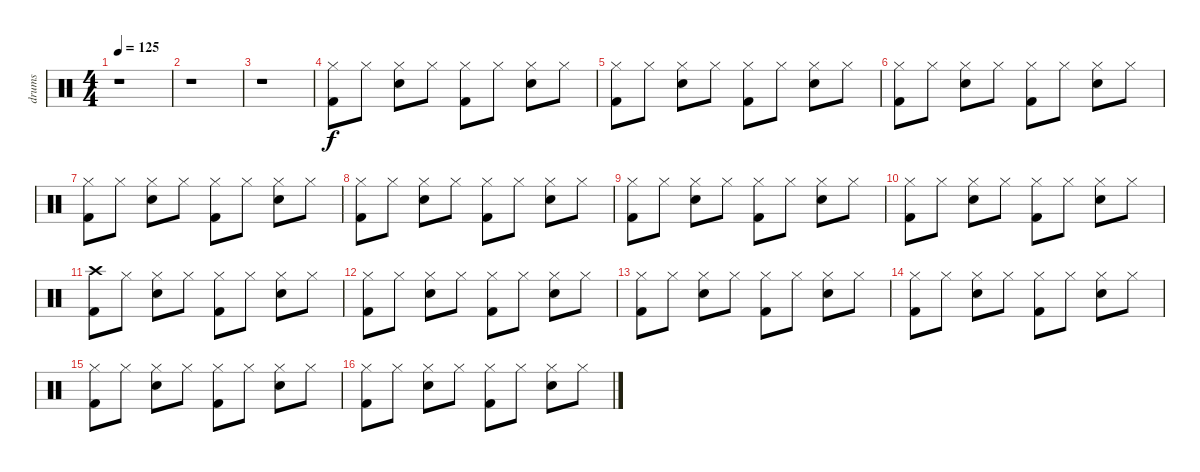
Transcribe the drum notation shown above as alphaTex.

\track ("drums" "drums") {instrument percussion}
\staff {score}
\articulation defaults
\ts (4 4)
\tempo 125
\clef neutral
\ks c
r.1{dy f} |
r.1 |
r.1 |
("Hi-Hat (closed)" "Kick (hit) 2").8 "Hi-Hat (closed)".8 ("Hi-Hat (closed)" "Snare (hit) 2").8 "Hi-Hat (closed)".8 ("Hi-Hat (closed)" "Kick (hit) 2").8 "Hi-Hat (closed)".8 ("Hi-Hat (closed)" "Snare (hit) 2").8 "Hi-Hat (closed)".8 |
("Hi-Hat (closed)" "Kick (hit) 2").8 "Hi-Hat (closed)".8 ("Hi-Hat (closed)" "Snare (hit) 2").8 "Hi-Hat (closed)".8 ("Hi-Hat (closed)" "Kick (hit) 2").8 "Hi-Hat (closed)".8 ("Hi-Hat (closed)" "Snare (hit) 2").8 "Hi-Hat (closed)".8 |
("Hi-Hat (closed)" "Kick (hit) 2").8 "Hi-Hat (closed)".8 ("Hi-Hat (closed)" "Snare (hit) 2").8 "Hi-Hat (closed)".8 ("Hi-Hat (closed)" "Kick (hit) 2").8 "Hi-Hat (closed)".8 ("Hi-Hat (closed)" "Snare (hit) 2").8 "Hi-Hat (closed)".8 |
("Hi-Hat (closed)" "Kick (hit) 2").8 "Hi-Hat (closed)".8 ("Hi-Hat (closed)" "Snare (hit) 2").8 "Hi-Hat (closed)".8 ("Hi-Hat (closed)" "Kick (hit) 2").8 "Hi-Hat (closed)".8 ("Hi-Hat (closed)" "Snare (hit) 2").8 "Hi-Hat (closed)".8 |
("Hi-Hat (closed)" "Kick (hit) 2").8 "Hi-Hat (closed)".8 ("Hi-Hat (closed)" "Snare (hit) 2").8 "Hi-Hat (closed)".8 ("Hi-Hat (closed)" "Kick (hit) 2").8 "Hi-Hat (closed)".8 ("Hi-Hat (closed)" "Snare (hit) 2").8 "Hi-Hat (closed)".8 |
("Hi-Hat (closed)" "Kick (hit) 2").8 "Hi-Hat (closed)".8 ("Hi-Hat (closed)" "Snare (hit) 2").8 "Hi-Hat (closed)".8 ("Hi-Hat (closed)" "Kick (hit) 2").8 "Hi-Hat (closed)".8 ("Hi-Hat (closed)" "Snare (hit) 2").8 "Hi-Hat (closed)".8 |
("Hi-Hat (closed)" "Kick (hit) 2").8 "Hi-Hat (closed)".8 ("Hi-Hat (closed)" "Snare (hit) 2").8 "Hi-Hat (closed)".8 ("Hi-Hat (closed)" "Kick (hit) 2").8 "Hi-Hat (closed)".8 ("Hi-Hat (closed)" "Snare (hit) 2").8 "Hi-Hat (closed)".8 |
("Crash high (hit)" "Kick (hit) 2").8 "Hi-Hat (closed)".8 ("Hi-Hat (closed)" "Snare (hit) 2").8 "Hi-Hat (closed)".8 ("Hi-Hat (closed)" "Kick (hit) 2").8 "Hi-Hat (closed)".8 ("Hi-Hat (closed)" "Snare (hit) 2").8 "Hi-Hat (closed)".8 |
("Hi-Hat (closed)" "Kick (hit) 2").8 "Hi-Hat (closed)".8 ("Hi-Hat (closed)" "Snare (hit) 2").8 "Hi-Hat (closed)".8 ("Hi-Hat (closed)" "Kick (hit) 2").8 "Hi-Hat (closed)".8 ("Hi-Hat (closed)" "Snare (hit) 2").8 "Hi-Hat (closed)".8 |
("Hi-Hat (closed)" "Kick (hit) 2").8 "Hi-Hat (closed)".8 ("Hi-Hat (closed)" "Snare (hit) 2").8 "Hi-Hat (closed)".8 ("Hi-Hat (closed)" "Kick (hit) 2").8 "Hi-Hat (closed)".8 ("Hi-Hat (closed)" "Snare (hit) 2").8 "Hi-Hat (closed)".8 |
("Hi-Hat (closed)" "Kick (hit) 2").8 "Hi-Hat (closed)".8 ("Hi-Hat (closed)" "Snare (hit) 2").8 "Hi-Hat (closed)".8 ("Hi-Hat (closed)" "Kick (hit) 2").8 "Hi-Hat (closed)".8 ("Hi-Hat (closed)" "Snare (hit) 2").8 "Hi-Hat (closed)".8 |
("Hi-Hat (closed)" "Kick (hit) 2").8 "Hi-Hat (closed)".8 ("Hi-Hat (closed)" "Snare (hit) 2").8 "Hi-Hat (closed)".8 ("Hi-Hat (closed)" "Kick (hit) 2").8 "Hi-Hat (closed)".8 ("Hi-Hat (closed)" "Snare (hit) 2").8 "Hi-Hat (closed)".8 |
("Hi-Hat (closed)" "Kick (hit) 2").8 "Hi-Hat (closed)".8 ("Hi-Hat (closed)" "Snare (hit) 2").8 "Hi-Hat (closed)".8 ("Hi-Hat (closed)" "Kick (hit) 2").8 "Hi-Hat (closed)".8 ("Hi-Hat (closed)" "Snare (hit) 2").8 "Hi-Hat (closed)".8
